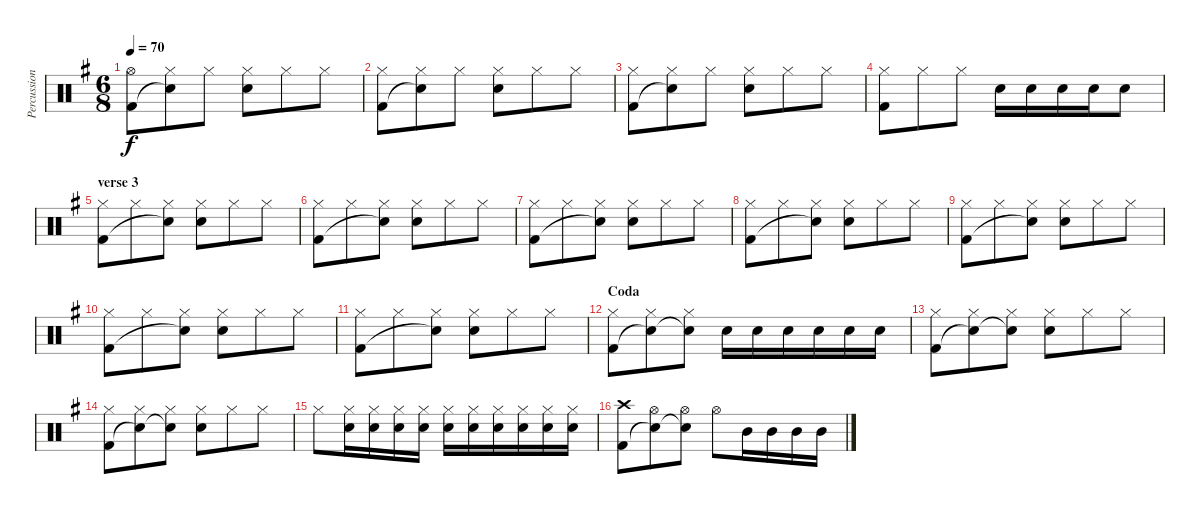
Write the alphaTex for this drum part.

\track ("Percussion" "Percussion") {instrument percussion}
\staff {score}
\articulation defaults
\ts (6 8)
\tempo 70
\clef neutral
\ks g
("Hi-Hat (open)" "Kick (hit) 2").8{dy f} ("Hi-Hat (closed)" "Snare (hit)"{t}).8 "Hi-Hat (closed)".8 ("Hi-Hat (closed)" "Snare (hit) 2").8 "Hi-Hat (closed)".8 "Hi-Hat (closed)".8 |
("Hi-Hat (closed)" "Kick (hit) 2").8 ("Hi-Hat (closed)" "Snare (hit)"{t}).8 "Hi-Hat (closed)".8 ("Hi-Hat (closed)" "Snare (hit) 2").8 "Hi-Hat (closed)".8 "Hi-Hat (closed)".8 |
("Hi-Hat (closed)" "Kick (hit) 2").8 ("Hi-Hat (closed)" "Snare (hit)"{t}).8 "Hi-Hat (closed)".8 ("Hi-Hat (closed)" "Snare (hit) 2").8 "Hi-Hat (closed)".8 "Hi-Hat (closed)".8 |
("Hi-Hat (closed)" "Kick (hit) 2").8 "Hi-Hat (closed)".8 "Hi-Hat (closed)".8 "Snare (hit) 2".16 "Snare (hit) 2".16 "Snare (hit) 2".16 "Snare (hit) 2".16 "Snare (hit) 2".8 |
\section ("" "verse 3")
("Hi-Hat (closed)" "Kick (hit) 2").8 "Hi-Hat (closed)".8 ("Hi-Hat (closed)" "Snare (hit)"{t}).8 ("Hi-Hat (closed)" "Snare (hit) 2").8 "Hi-Hat (closed)".8 "Hi-Hat (closed)".8 |
("Hi-Hat (closed)" "Kick (hit) 2").8 "Hi-Hat (closed)".8 ("Hi-Hat (closed)" "Snare (hit)"{t}).8 ("Hi-Hat (closed)" "Snare (hit) 2").8 "Hi-Hat (closed)".8 "Hi-Hat (closed)".8 |
("Hi-Hat (closed)" "Kick (hit) 2").8 "Hi-Hat (closed)".8 ("Hi-Hat (closed)" "Snare (hit)"{t}).8 ("Hi-Hat (closed)" "Snare (hit) 2").8 "Hi-Hat (closed)".8 "Hi-Hat (closed)".8 |
("Hi-Hat (closed)" "Kick (hit) 2").8 "Hi-Hat (closed)".8 ("Hi-Hat (closed)" "Snare (hit)"{t}).8 ("Hi-Hat (closed)" "Snare (hit) 2").8 "Hi-Hat (closed)".8 "Hi-Hat (closed)".8 |
("Hi-Hat (closed)" "Kick (hit) 2").8 "Hi-Hat (closed)".8 ("Hi-Hat (closed)" "Snare (hit)"{t}).8 ("Hi-Hat (closed)" "Snare (hit) 2").8 "Hi-Hat (closed)".8 "Hi-Hat (closed)".8 |
("Hi-Hat (closed)" "Kick (hit) 2").8 "Hi-Hat (closed)".8 ("Hi-Hat (closed)" "Snare (hit)"{t}).8 ("Hi-Hat (closed)" "Snare (hit) 2").8 "Hi-Hat (closed)".8 "Hi-Hat (closed)".8 |
("Hi-Hat (closed)" "Kick (hit) 2").8 "Hi-Hat (closed)".8 ("Hi-Hat (closed)" "Snare (hit)"{t}).8 ("Hi-Hat (closed)" "Snare (hit) 2").8 "Hi-Hat (closed)".8 "Hi-Hat (closed)".8 |
\section ("" "Coda")
("Hi-Hat (closed)" "Kick (hit) 2").8 ("Hi-Hat (closed)" "Snare (hit)"{t}).8 ("Hi-Hat (closed)" "Snare (hit)"{t}).8 "Snare (hit) 2".16 "Snare (hit) 2".16 "Snare (hit) 2".16 "Snare (hit) 2".16 "Snare (hit) 2".16 "Snare (hit) 2".16 |
("Hi-Hat (closed)" "Kick (hit) 2").8 ("Hi-Hat (closed)" "Snare (hit)"{t}).8 ("Hi-Hat (closed)" "Snare (hit)"{t}).8 ("Hi-Hat (closed)" "Snare (hit) 2").8 "Hi-Hat (closed)".8 "Hi-Hat (closed)".8 |
("Hi-Hat (closed)" "Kick (hit) 2").8 ("Hi-Hat (closed)" "Snare (hit)"{t}).8 ("Hi-Hat (closed)" "Snare (hit)"{t}).8 ("Hi-Hat (closed)" "Snare (hit) 2").8 "Hi-Hat (closed)".8 "Hi-Hat (closed)".8 |
"Hi-Hat (closed)".8 ("Hi-Hat (closed)" "Snare (hit) 2").16 ("Hi-Hat (closed)" "Snare (hit) 2").16 ("Hi-Hat (closed)" "Snare (hit) 2").16 ("Hi-Hat (closed)" "Snare (hit) 2").16 ("Hi-Hat (closed)" "Snare (hit) 2").16 ("Hi-Hat (closed)" "Snare (hit) 2").16 ("Hi-Hat (closed)" "Snare (hit) 2").16 ("Hi-Hat (closed)" "Snare (hit) 2").16 ("Hi-Hat (closed)" "Snare (hit) 2").16 ("Hi-Hat (closed)" "Snare (hit) 2").16 |
("Crash high (hit)" "Kick (hit) 2").8 ("Hi-Hat (open)" "Snare (hit)"{t}).8 ("Hi-Hat (open)" "Snare (hit)"{t}).8 "Hi-Hat (open)".8 "Mid Tom (hit)".16 "Mid Tom (hit)".16 "Mid Tom (hit)".16 "Mid Tom (hit)".16
